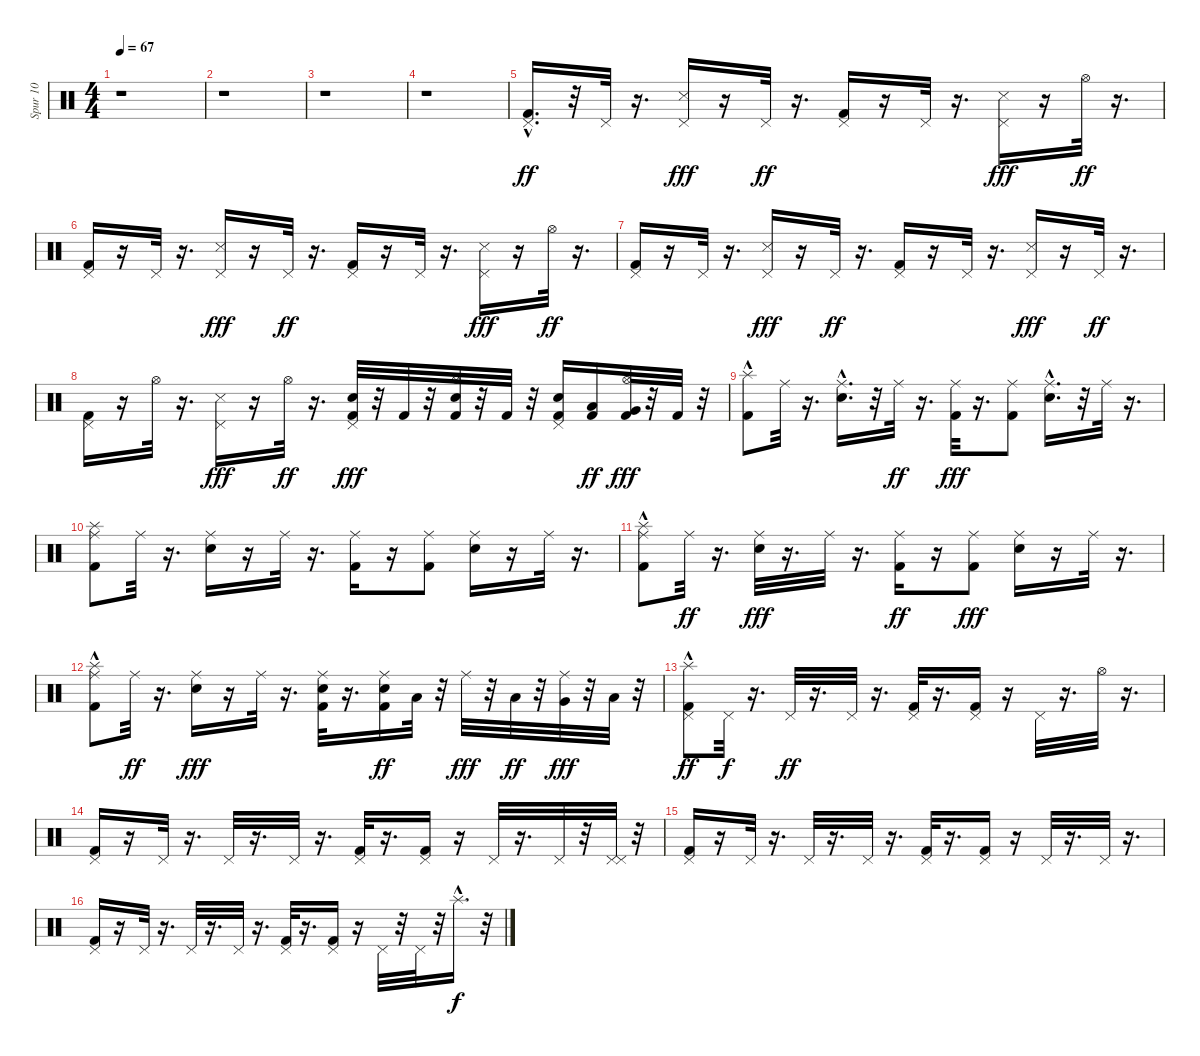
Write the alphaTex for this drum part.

\track ("Spur 10" "Spur 10") {instrument percussion}
\staff {score}
\articulation defaults
\ts (4 4)
\tempo 67
\clef neutral
\ks c
r.1{dy ff} |
r.1 |
r.1 |
r.1 |
("Kick (hit) 2"{hac} "Pedal Hi-Hat (hit)").16{d} r.32 "Pedal Hi-Hat (hit)".32 r.16{d} ("Pedal Hi-Hat (hit)" "Snare (side stick) 3").16{dy fff} r.16 "Pedal Hi-Hat (hit)".32{dy ff} r.16{d} ("Kick (hit) 2" "Pedal Hi-Hat (hit)").16 r.16 "Pedal Hi-Hat (hit)".32 r.16{d} ("Pedal Hi-Hat (hit)" "Snare (side stick) 3").16{dy fff} r.16 "Hi-Hat (open)".32{dy ff} r.16{d} |
("Kick (hit) 2" "Pedal Hi-Hat (hit)").16 r.16 "Pedal Hi-Hat (hit)".32 r.16{d} ("Pedal Hi-Hat (hit)" "Snare (side stick) 3").16{dy fff} r.16 "Pedal Hi-Hat (hit)".32{dy ff} r.16{d} ("Kick (hit) 2" "Pedal Hi-Hat (hit)").16 r.16 "Pedal Hi-Hat (hit)".32 r.16{d} ("Pedal Hi-Hat (hit)" "Snare (side stick) 3").16{dy fff} r.16 "Hi-Hat (open)".32{dy ff} r.16{d} |
("Kick (hit) 2" "Pedal Hi-Hat (hit)").16 r.16 "Pedal Hi-Hat (hit)".32 r.16{d} ("Pedal Hi-Hat (hit)" "Snare (side stick) 3").16{dy fff} r.16 "Pedal Hi-Hat (hit)".32{dy ff} r.16{d} ("Kick (hit) 2" "Pedal Hi-Hat (hit)").16 r.16 "Pedal Hi-Hat (hit)".32 r.16{d} ("Pedal Hi-Hat (hit)" "Snare (side stick) 3").16{dy fff} r.16 "Pedal Hi-Hat (hit)".32{dy ff} r.16{d} |
("Kick (hit) 2" "Pedal Hi-Hat (hit)").16 r.16 "Hi-Hat (open)".32 r.16{d} ("Pedal Hi-Hat (hit)" "Snare (side stick) 3").16{dy fff} r.16 "Hi-Hat (open)".32{dy ff} r.16{d} ("Kick (hit) 2" "Pedal Hi-Hat (hit)" "Snare (hit) 2").32{dy fff} r.32 "Kick (hit) 2".32 r.32 ("Kick (hit) 2" "Hi-Hat (open)" "Snare (hit) 2").32 r.32 "Kick (hit) 2".32 r.32 ("Kick (hit) 2" "Pedal Hi-Hat (hit)" "Snare (hit) 2").16 ("Kick (hit) 2" "Low Tom (hit)").16{dy ff} ("Kick (hit) 2" "Hi-Hat (open)" "Very Low Tom (hit)").32{dy fff} r.32 "Kick (hit) 2".32 r.32 |
("Kick (hit) 2"{hac} "Splash (hit)"{hac}).8 "Ride (middle)".32 r.16{d} ("Ride (middle)" "Snare (hit) 2"{hac}).16{d} r.32 "Ride (middle)".32{dy ff} r.16{d} ("Kick (hit) 2" "Ride (middle)").32{dy fff} r.16{d} ("Kick (hit) 2" "Ride (middle)").8 ("Ride (middle)" "Snare (hit) 2"{hac}).16{d} r.32 "Ride (middle)".32 r.16{d} |
("Kick (hit) 2" "Ride (middle)" "Splash (hit)").8 "Ride (middle)".32 r.16{d} ("Ride (middle)" "Snare (hit) 2").16 r.16 "Ride (middle)".32 r.16{d} ("Kick (hit) 2" "Ride (middle)").16 r.16 ("Kick (hit) 2" "Ride (middle)").8 ("Ride (middle)" "Snare (hit) 2").16 r.16 "Ride (middle)".32 r.16{d} |
("Kick (hit) 2" "Ride (middle)" "Splash (hit)"{hac}).8 "Ride (middle)".32{dy ff} r.16{d} ("Ride (middle)" "Snare (hit) 2").32{dy fff} r.16{d} "Ride (middle)".32 r.16{d} ("Kick (hit) 2" "Ride (middle)").16{dy ff} r.16 ("Kick (hit) 2" "Ride (middle)").8{dy fff} ("Ride (middle)" "Snare (hit) 2").16 r.16 "Ride (middle)".32 r.16{d} |
("Kick (hit) 2" "Ride (middle)" "Splash (hit)"{hac}).8 "Ride (middle)".32{dy ff} r.16{d} ("Ride (middle)" "Snare (hit) 2").16{dy fff} r.16 "Ride (middle)".32 r.16{d} ("Kick (hit) 2" "Ride (middle)" "Snare (hit) 2").32 r.16{d} ("Kick (hit) 2" "Ride (middle)" "Snare (hit) 2").16{dy ff} "Low Tom (hit)".32 r.32 "Ride (middle)".32{dy fff} r.32 "Low Tom (hit)".32{dy ff} r.32 ("Ride (middle)" "Very Low Tom (hit)").32{dy fff} r.32 "Low Floor Tom (hit)".32 r.32 |
("Kick (hit) 2" "Splash (hit)"{hac} "Pedal Hi-Hat (hit)").8{dy ff} "Pedal Hi-Hat (hit)".32{dy f} r.16{d} "Pedal Hi-Hat (hit)".32{dy ff} r.16{d} "Pedal Hi-Hat (hit)".32 r.16{d} ("Kick (hit) 2" "Pedal Hi-Hat (hit)").32 r.16{d} ("Kick (hit) 2" "Pedal Hi-Hat (hit)").16 r.16 "Pedal Hi-Hat (hit)".32 r.16{d} "Hi-Hat (open)".32 r.16{d} |
("Kick (hit) 2" "Pedal Hi-Hat (hit)").16 r.16 "Pedal Hi-Hat (hit)".32 r.16{d} "Pedal Hi-Hat (hit)".32 r.16{d} "Pedal Hi-Hat (hit)".32 r.16{d} ("Kick (hit) 2" "Pedal Hi-Hat (hit)").32 r.16{d} ("Kick (hit) 2" "Pedal Hi-Hat (hit)").16 r.16 "Pedal Hi-Hat (hit)".32 r.16{d} "Pedal Hi-Hat (hit)".32 r.32 ("Pedal Hi-Hat (hit)" "Pedal Hi-Hat (hit)").32 r.32 |
("Kick (hit) 2" "Pedal Hi-Hat (hit)").16 r.16 "Pedal Hi-Hat (hit)".32 r.16{d} "Pedal Hi-Hat (hit)".32 r.16{d} "Pedal Hi-Hat (hit)".32 r.16{d} ("Kick (hit) 2" "Pedal Hi-Hat (hit)").32 r.16{d} ("Kick (hit) 2" "Pedal Hi-Hat (hit)").16 r.16 "Pedal Hi-Hat (hit)".32 r.16{d} "Pedal Hi-Hat (hit)".32 r.16{d} |
("Kick (hit) 2" "Pedal Hi-Hat (hit)").16 r.16 "Pedal Hi-Hat (hit)".32 r.16{d} "Pedal Hi-Hat (hit)".32 r.16{d} "Pedal Hi-Hat (hit)".32 r.16{d} ("Kick (hit) 2" "Pedal Hi-Hat (hit)").32 r.16{d} ("Kick (hit) 2" "Pedal Hi-Hat (hit)").16 r.16 "Pedal Hi-Hat (hit)".32 r.32 "Pedal Hi-Hat (hit)".32 r.32 "Splash (hit)"{hac}.16{d dy f} r.32
